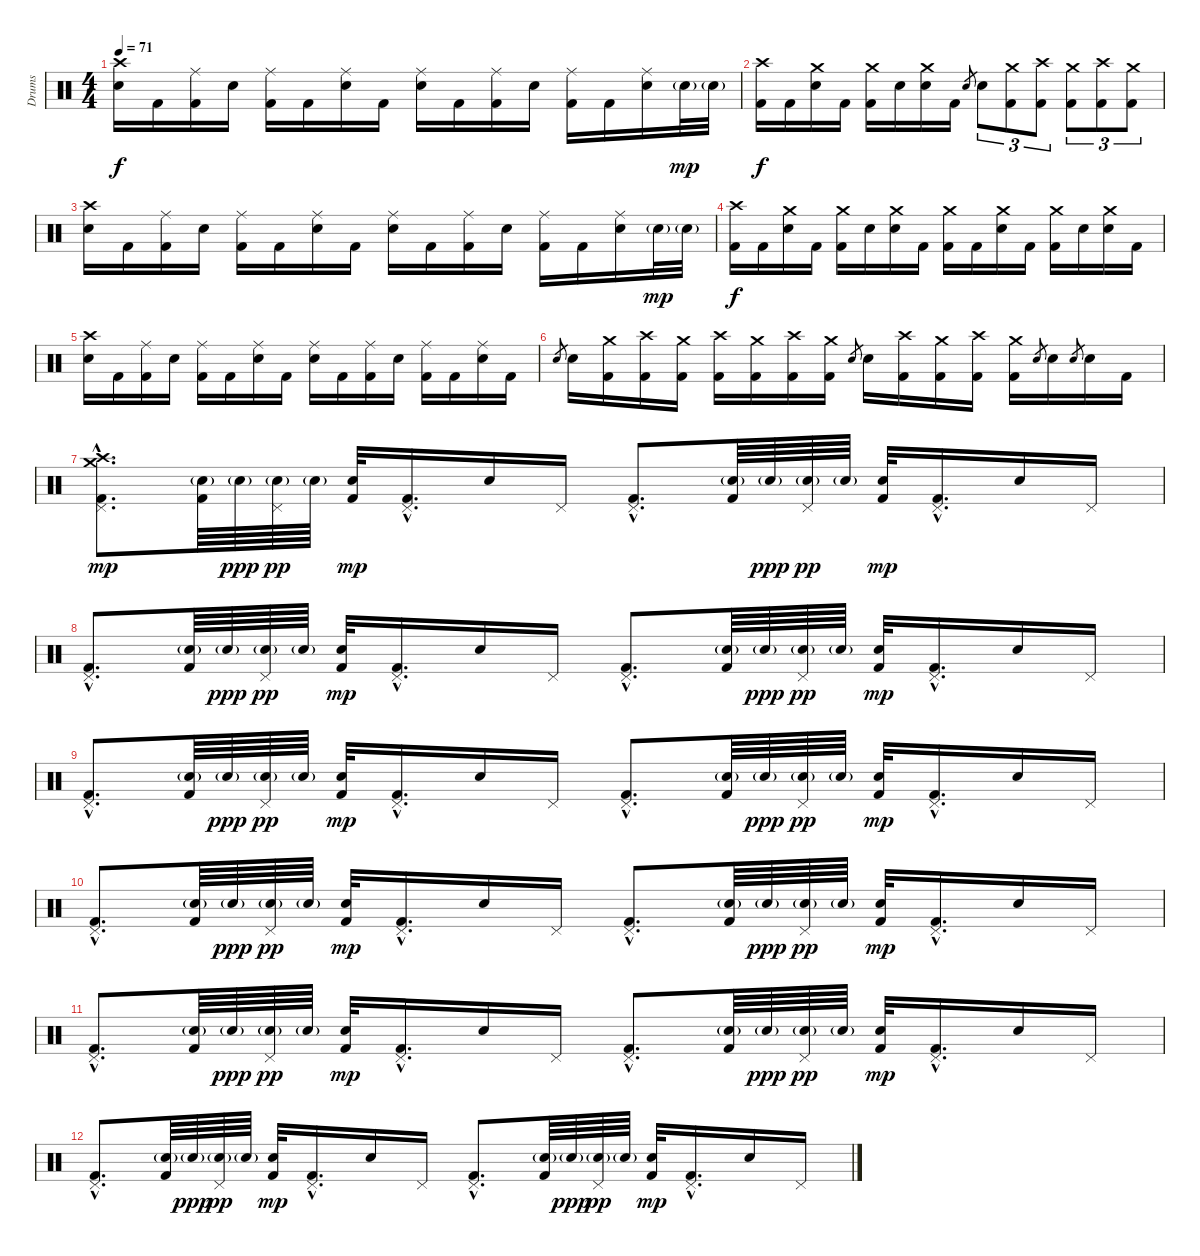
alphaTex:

\track ("Drums" "Drums") {instrument percussion}
\staff {score}
\articulation defaults
\ts (4 4)
\tempo 71
\clef neutral
\ks c
("Crash high (hit)" "Snare (hit) 2").16{dy f} "Kick (hit) 2".16 ("Ride (middle)" "Kick (hit) 2").16 "Snare (hit) 2".16 ("Ride (middle)" "Kick (hit) 2").16 "Kick (hit) 2".16 ("Ride (middle)" "Snare (hit) 2").16 "Kick (hit) 2".16 ("Ride (middle)" "Snare (hit) 2").16 "Kick (hit) 2".16 ("Ride (middle)" "Kick (hit) 2").16 "Snare (hit) 2".16 ("Ride (middle)" "Kick (hit) 2").16 "Kick (hit) 2".16 ("Ride (middle)" "Snare (hit) 2").16 "Snare (hit) 2"{g}.32{dy mp} "Snare (hit) 2"{g}.32 |
("Crash high (hit)" "Kick (hit) 2").16{dy f} "Kick (hit) 2".16 ("Crash medium (hit)" "Snare (hit) 2").16 "Kick (hit) 2".16 ("Crash medium (hit)" "Kick (hit) 2").16 "Snare (hit) 2".16 ("Crash medium (hit)" "Snare (hit) 2").16 "Kick (hit) 2".16 "Snare (hit) 2".8{gr} "Snare (hit) 2".8{tu (3 2)} ("Crash medium (hit)" "Kick (hit) 2").8{tu (3 2)} ("Crash high (hit)" "Kick (hit) 2").8{tu (3 2)} ("Crash medium (hit)" "Kick (hit) 2").8{tu (3 2)} ("Crash high (hit)" "Kick (hit) 2").8{tu (3 2)} ("Crash medium (hit)" "Kick (hit) 2").8{tu (3 2)} |
("Crash high (hit)" "Snare (hit) 2").16 "Kick (hit) 2".16 ("Ride (middle)" "Kick (hit) 2").16 "Snare (hit) 2".16 ("Ride (middle)" "Kick (hit) 2").16 "Kick (hit) 2".16 ("Ride (middle)" "Snare (hit) 2").16 "Kick (hit) 2".16 ("Ride (middle)" "Snare (hit) 2").16 "Kick (hit) 2".16 ("Ride (middle)" "Kick (hit) 2").16 "Snare (hit) 2".16 ("Ride (middle)" "Kick (hit) 2").16 "Kick (hit) 2".16 ("Ride (middle)" "Snare (hit) 2").16 "Snare (hit) 2"{g}.32{dy mp} "Snare (hit) 2"{g}.32 |
("Crash high (hit)" "Kick (hit) 2").16{dy f} "Kick (hit) 2".16 ("Crash medium (hit)" "Snare (hit) 2").16 "Kick (hit) 2".16 ("Crash medium (hit)" "Kick (hit) 2").16 "Snare (hit) 2".16 ("Crash medium (hit)" "Snare (hit) 2").16 "Kick (hit) 2".16 ("Crash medium (hit)" "Kick (hit) 2").16 "Kick (hit) 2".16 ("Crash medium (hit)" "Snare (hit) 2").16 "Kick (hit) 2".16 ("Crash medium (hit)" "Kick (hit) 2").16 "Snare (hit) 2".16 ("Crash medium (hit)" "Snare (hit) 2").16 "Kick (hit) 2".16 |
("Crash high (hit)" "Snare (hit) 2").16 "Kick (hit) 2".16 ("Ride (middle)" "Kick (hit) 2").16 "Snare (hit) 2".16 ("Ride (middle)" "Kick (hit) 2").16 "Kick (hit) 2".16 ("Ride (middle)" "Snare (hit) 2").16 "Kick (hit) 2".16 ("Ride (middle)" "Snare (hit) 2").16 "Kick (hit) 2".16 ("Ride (middle)" "Kick (hit) 2").16 "Snare (hit) 2".16 ("Ride (middle)" "Kick (hit) 2").16 "Kick (hit) 2".16 ("Ride (middle)" "Snare (hit) 2").16 "Kick (hit) 2".16 |
"Snare (hit) 2".8{gr} "Snare (hit) 2".16 ("Crash medium (hit)" "Kick (hit) 2").16 ("Crash high (hit)" "Kick (hit) 2").16 ("Crash medium (hit)" "Kick (hit) 2").16 ("Crash high (hit)" "Kick (hit) 2").16 ("Crash medium (hit)" "Kick (hit) 2").16 ("Crash high (hit)" "Kick (hit) 2").16 ("Crash medium (hit)" "Kick (hit) 2").16 "Snare (hit) 2".8{gr} "Snare (hit) 2".16 ("Crash high (hit)" "Kick (hit) 2").16 ("Crash medium (hit)" "Kick (hit) 2").16 ("Crash high (hit)" "Kick (hit) 2").16 ("Crash medium (hit)" "Kick (hit) 2").16 "Snare (hit) 2".8{gr} "Snare (hit) 2".16 "Snare (hit) 2".8{gr} "Snare (hit) 2".16 "Kick (hit) 2".16 |
("Crash high (hit)"{hac} "Pedal Hi-Hat (hit)"{hac} "Crash medium (hit)"{hac} "Kick (hit) 2"{hac}).8{d dy mp} ("Snare (hit) 2"{g} "Kick (hit) 2").64 "Snare (hit) 2"{g}.64{dy ppp} ("Pedal Hi-Hat (hit)" "Snare (hit) 2"{g}).64{dy pp} "Snare (hit) 2"{g}.64 ("Snare (hit) 2" "Kick (hit) 2").32{dy mp} ("Pedal Hi-Hat (hit)"{hac} "Kick (hit) 2"{hac}).16{d} "Snare (hit) 2".16 "Pedal Hi-Hat (hit)".16 ("Pedal Hi-Hat (hit)"{hac} "Kick (hit) 2"{hac}).8{d} ("Snare (hit) 2"{g} "Kick (hit) 2").64 "Snare (hit) 2"{g}.64{dy ppp} ("Pedal Hi-Hat (hit)" "Snare (hit) 2"{g}).64{dy pp} "Snare (hit) 2"{g}.64 ("Snare (hit) 2" "Kick (hit) 2").32{dy mp} ("Pedal Hi-Hat (hit)"{hac} "Kick (hit) 2"{hac}).16{d} "Snare (hit) 2".16 "Pedal Hi-Hat (hit)".16 |
("Pedal Hi-Hat (hit)"{hac} "Kick (hit) 2"{hac}).8{d} ("Snare (hit) 2"{g} "Kick (hit) 2").64 "Snare (hit) 2"{g}.64{dy ppp} ("Pedal Hi-Hat (hit)" "Snare (hit) 2"{g}).64{dy pp} "Snare (hit) 2"{g}.64 ("Snare (hit) 2" "Kick (hit) 2").32{dy mp} ("Pedal Hi-Hat (hit)"{hac} "Kick (hit) 2"{hac}).16{d} "Snare (hit) 2".16 "Pedal Hi-Hat (hit)".16 ("Pedal Hi-Hat (hit)"{hac} "Kick (hit) 2"{hac}).8{d} ("Snare (hit) 2"{g} "Kick (hit) 2").64 "Snare (hit) 2"{g}.64{dy ppp} ("Pedal Hi-Hat (hit)" "Snare (hit) 2"{g}).64{dy pp} "Snare (hit) 2"{g}.64 ("Snare (hit) 2" "Kick (hit) 2").32{dy mp} ("Pedal Hi-Hat (hit)"{hac} "Kick (hit) 2"{hac}).16{d} "Snare (hit) 2".16 "Pedal Hi-Hat (hit)".16 |
("Pedal Hi-Hat (hit)"{hac} "Kick (hit) 2"{hac}).8{d volume 0} ("Snare (hit) 2"{g} "Kick (hit) 2").64 "Snare (hit) 2"{g}.64{dy ppp} ("Pedal Hi-Hat (hit)" "Snare (hit) 2"{g}).64{dy pp} "Snare (hit) 2"{g}.64 ("Snare (hit) 2" "Kick (hit) 2").32{dy mp} ("Pedal Hi-Hat (hit)"{hac} "Kick (hit) 2"{hac}).16{d} "Snare (hit) 2".16 "Pedal Hi-Hat (hit)".16 ("Pedal Hi-Hat (hit)"{hac} "Kick (hit) 2"{hac}).8{d} ("Snare (hit) 2"{g} "Kick (hit) 2").64 "Snare (hit) 2"{g}.64{dy ppp} ("Pedal Hi-Hat (hit)" "Snare (hit) 2"{g}).64{dy pp} "Snare (hit) 2"{g}.64 ("Snare (hit) 2" "Kick (hit) 2").32{dy mp} ("Pedal Hi-Hat (hit)"{hac} "Kick (hit) 2"{hac}).16{d} "Snare (hit) 2".16 "Pedal Hi-Hat (hit)".16 |
("Pedal Hi-Hat (hit)"{hac} "Kick (hit) 2"{hac}).8{d} ("Snare (hit) 2"{g} "Kick (hit) 2").64 "Snare (hit) 2"{g}.64{dy ppp} ("Pedal Hi-Hat (hit)" "Snare (hit) 2"{g}).64{dy pp} "Snare (hit) 2"{g}.64 ("Snare (hit) 2" "Kick (hit) 2").32{dy mp} ("Pedal Hi-Hat (hit)"{hac} "Kick (hit) 2"{hac}).16{d} "Snare (hit) 2".16 "Pedal Hi-Hat (hit)".16 ("Pedal Hi-Hat (hit)"{hac} "Kick (hit) 2"{hac}).8{d} ("Snare (hit) 2"{g} "Kick (hit) 2").64 "Snare (hit) 2"{g}.64{dy ppp} ("Pedal Hi-Hat (hit)" "Snare (hit) 2"{g}).64{dy pp} "Snare (hit) 2"{g}.64 ("Snare (hit) 2" "Kick (hit) 2").32{dy mp} ("Pedal Hi-Hat (hit)"{hac} "Kick (hit) 2"{hac}).16{d} "Snare (hit) 2".16 "Pedal Hi-Hat (hit)".16 |
("Pedal Hi-Hat (hit)"{hac} "Kick (hit) 2"{hac}).8{d} ("Snare (hit) 2"{g} "Kick (hit) 2").64 "Snare (hit) 2"{g}.64{dy ppp} ("Pedal Hi-Hat (hit)" "Snare (hit) 2"{g}).64{dy pp} "Snare (hit) 2"{g}.64 ("Snare (hit) 2" "Kick (hit) 2").32{dy mp} ("Pedal Hi-Hat (hit)"{hac} "Kick (hit) 2"{hac}).16{d} "Snare (hit) 2".16 "Pedal Hi-Hat (hit)".16 ("Pedal Hi-Hat (hit)"{hac} "Kick (hit) 2"{hac}).8{d} ("Snare (hit) 2"{g} "Kick (hit) 2").64 "Snare (hit) 2"{g}.64{dy ppp} ("Pedal Hi-Hat (hit)" "Snare (hit) 2"{g}).64{dy pp} "Snare (hit) 2"{g}.64 ("Snare (hit) 2" "Kick (hit) 2").32{dy mp} ("Pedal Hi-Hat (hit)"{hac} "Kick (hit) 2"{hac}).16{d} "Snare (hit) 2".16 "Pedal Hi-Hat (hit)".16 |
("Pedal Hi-Hat (hit)"{hac} "Kick (hit) 2"{hac}).8{d} ("Snare (hit) 2"{g} "Kick (hit) 2").64 "Snare (hit) 2"{g}.64{dy ppp} ("Pedal Hi-Hat (hit)" "Snare (hit) 2"{g}).64{dy pp} "Snare (hit) 2"{g}.64 ("Snare (hit) 2" "Kick (hit) 2").32{dy mp} ("Pedal Hi-Hat (hit)"{hac} "Kick (hit) 2"{hac}).16{d} "Snare (hit) 2".16 "Pedal Hi-Hat (hit)".16 ("Pedal Hi-Hat (hit)"{hac} "Kick (hit) 2"{hac}).8{d} ("Snare (hit) 2"{g} "Kick (hit) 2").64 "Snare (hit) 2"{g}.64{dy ppp} ("Pedal Hi-Hat (hit)" "Snare (hit) 2"{g}).64{dy pp} "Snare (hit) 2"{g}.64 ("Snare (hit) 2" "Kick (hit) 2").32{dy mp} ("Pedal Hi-Hat (hit)"{hac} "Kick (hit) 2"{hac}).16{d} "Snare (hit) 2".16 "Pedal Hi-Hat (hit)".16
